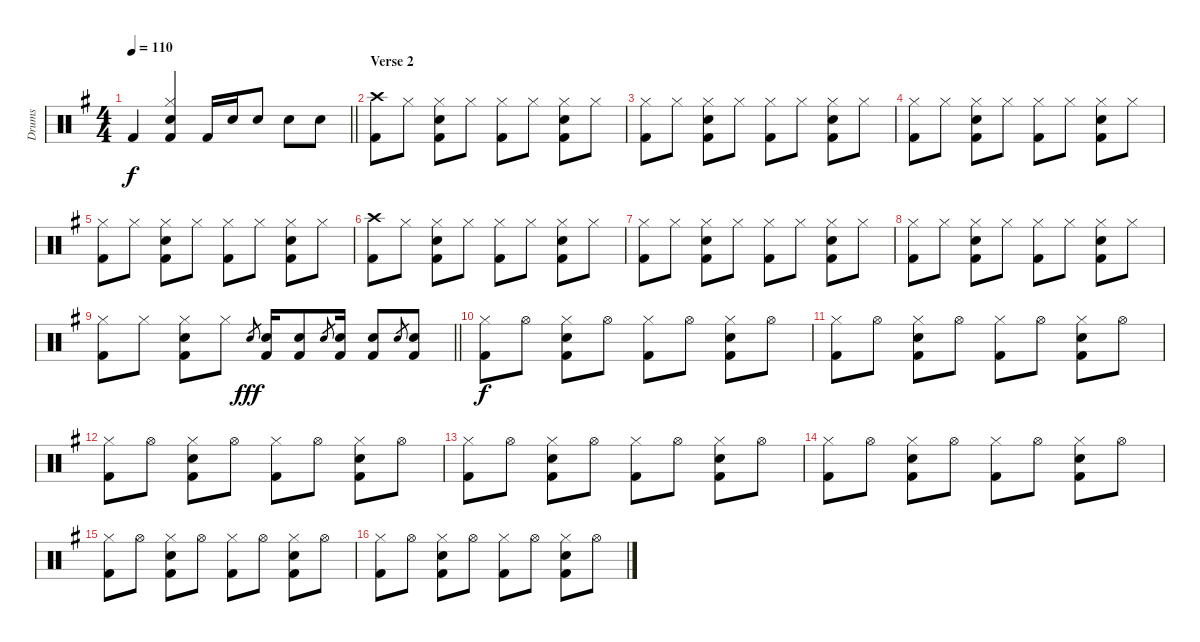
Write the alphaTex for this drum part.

\track ("Drums" "Drums") {instrument percussion}
\staff {score}
\articulation defaults
\ts (4 4)
\tempo 110
\clef neutral
\barLineRight lightlight
\ks g "Kick (hit) 2".4{dy f}
("Hi-Hat (closed)" "Snare (hit) 2" "Kick (hit) 2").4 "Kick (hit) 2".16 "Snare (hit) 2".16 "Snare (hit) 2".8 "Snare (hit) 2".8 "Snare (hit) 2".8 |
\section ("" "Verse 2")
("Crash high (hit)" "Kick (hit) 2").8 "Hi-Hat (closed)".8 ("Hi-Hat (closed)" "Snare (hit) 2" "Kick (hit) 2").8 "Hi-Hat (closed)".8 ("Hi-Hat (closed)" "Kick (hit) 2").8 "Hi-Hat (closed)".8 ("Hi-Hat (closed)" "Snare (hit) 2" "Kick (hit) 2").8 "Hi-Hat (closed)".8 |
("Hi-Hat (closed)" "Kick (hit) 2").8 "Hi-Hat (closed)".8 ("Hi-Hat (closed)" "Snare (hit) 2" "Kick (hit) 2").8 "Hi-Hat (closed)".8 ("Hi-Hat (closed)" "Kick (hit) 2").8 "Hi-Hat (closed)".8 ("Hi-Hat (closed)" "Snare (hit) 2" "Kick (hit) 2").8 "Hi-Hat (closed)".8 |
("Hi-Hat (closed)" "Kick (hit) 2").8 "Hi-Hat (closed)".8 ("Hi-Hat (closed)" "Snare (hit) 2" "Kick (hit) 2").8 "Hi-Hat (closed)".8 ("Hi-Hat (closed)" "Kick (hit) 2").8 "Hi-Hat (closed)".8 ("Hi-Hat (closed)" "Snare (hit) 2" "Kick (hit) 2").8 "Hi-Hat (closed)".8 |
("Hi-Hat (closed)" "Kick (hit) 2").8 "Hi-Hat (closed)".8 ("Hi-Hat (closed)" "Snare (hit) 2" "Kick (hit) 2").8 "Hi-Hat (closed)".8 ("Hi-Hat (closed)" "Kick (hit) 2").8 "Hi-Hat (closed)".8 ("Hi-Hat (closed)" "Snare (hit) 2" "Kick (hit) 2").8 "Hi-Hat (closed)".8 |
("Crash high (hit)" "Kick (hit) 2").8 "Hi-Hat (closed)".8 ("Hi-Hat (closed)" "Snare (hit) 2" "Kick (hit) 2").8 "Hi-Hat (closed)".8 ("Hi-Hat (closed)" "Kick (hit) 2").8 "Hi-Hat (closed)".8 ("Hi-Hat (closed)" "Snare (hit) 2" "Kick (hit) 2").8 "Hi-Hat (closed)".8 |
("Hi-Hat (closed)" "Kick (hit) 2").8 "Hi-Hat (closed)".8 ("Hi-Hat (closed)" "Snare (hit) 2" "Kick (hit) 2").8 "Hi-Hat (closed)".8 ("Hi-Hat (closed)" "Kick (hit) 2").8 "Hi-Hat (closed)".8 ("Hi-Hat (closed)" "Snare (hit) 2" "Kick (hit) 2").8 "Hi-Hat (closed)".8 |
("Hi-Hat (closed)" "Kick (hit) 2").8 "Hi-Hat (closed)".8 ("Hi-Hat (closed)" "Snare (hit) 2" "Kick (hit) 2").8 "Hi-Hat (closed)".8 ("Hi-Hat (closed)" "Kick (hit) 2").8 "Hi-Hat (closed)".8 ("Hi-Hat (closed)" "Snare (hit) 2" "Kick (hit) 2").8 "Hi-Hat (closed)".8 |
\barLineRight lightlight
("Hi-Hat (closed)" "Kick (hit) 2").8 "Hi-Hat (closed)".8 ("Hi-Hat (closed)" "Snare (hit) 2" "Kick (hit) 2").8 "Hi-Hat (closed)".8 "Snare (hit) 2".8{gr dy fff} ("Snare (hit) 2" "Kick (hit) 2").16 ("Snare (hit) 2" "Kick (hit) 2").8 "Snare (hit) 2".8{gr} ("Snare (hit) 2" "Kick (hit) 2").16 ("Snare (hit) 2" "Kick (hit) 2").8 "Snare (hit) 2".8{gr} ("Snare (hit) 2" "Kick (hit) 2").8 |
("Hi-Hat (closed)" "Kick (hit) 2").8{dy f} "Hi-Hat (open)".8 ("Hi-Hat (closed)" "Snare (hit) 2" "Kick (hit) 2").8 "Hi-Hat (open)".8 ("Hi-Hat (closed)" "Kick (hit) 2").8 "Hi-Hat (open)".8 ("Hi-Hat (closed)" "Snare (hit) 2" "Kick (hit) 2").8 "Hi-Hat (open)".8 |
("Hi-Hat (closed)" "Kick (hit) 2").8 "Hi-Hat (open)".8 ("Hi-Hat (closed)" "Snare (hit) 2" "Kick (hit) 2").8 "Hi-Hat (open)".8 ("Hi-Hat (closed)" "Kick (hit) 2").8 "Hi-Hat (open)".8 ("Hi-Hat (closed)" "Snare (hit) 2" "Kick (hit) 2").8 "Hi-Hat (open)".8 |
("Hi-Hat (closed)" "Kick (hit) 2").8 "Hi-Hat (open)".8 ("Hi-Hat (closed)" "Snare (hit) 2" "Kick (hit) 2").8 "Hi-Hat (open)".8 ("Hi-Hat (closed)" "Kick (hit) 2").8 "Hi-Hat (open)".8 ("Hi-Hat (closed)" "Snare (hit) 2" "Kick (hit) 2").8 "Hi-Hat (open)".8 |
("Hi-Hat (closed)" "Kick (hit) 2").8 "Hi-Hat (open)".8 ("Hi-Hat (closed)" "Snare (hit) 2" "Kick (hit) 2").8 "Hi-Hat (open)".8 ("Hi-Hat (closed)" "Kick (hit) 2").8 "Hi-Hat (open)".8 ("Hi-Hat (closed)" "Snare (hit) 2" "Kick (hit) 2").8 "Hi-Hat (open)".8 |
("Hi-Hat (closed)" "Kick (hit) 2").8 "Hi-Hat (open)".8 ("Hi-Hat (closed)" "Snare (hit) 2" "Kick (hit) 2").8 "Hi-Hat (open)".8 ("Hi-Hat (closed)" "Kick (hit) 2").8 "Hi-Hat (open)".8 ("Hi-Hat (closed)" "Snare (hit) 2" "Kick (hit) 2").8 "Hi-Hat (open)".8 |
("Hi-Hat (closed)" "Kick (hit) 2").8 "Hi-Hat (open)".8 ("Hi-Hat (closed)" "Snare (hit) 2" "Kick (hit) 2").8 "Hi-Hat (open)".8 ("Hi-Hat (closed)" "Kick (hit) 2").8 "Hi-Hat (open)".8 ("Hi-Hat (closed)" "Snare (hit) 2" "Kick (hit) 2").8 "Hi-Hat (open)".8 |
("Hi-Hat (closed)" "Kick (hit) 2").8 "Hi-Hat (open)".8 ("Hi-Hat (closed)" "Snare (hit) 2" "Kick (hit) 2").8 "Hi-Hat (open)".8 ("Hi-Hat (closed)" "Kick (hit) 2").8 "Hi-Hat (open)".8 ("Hi-Hat (closed)" "Snare (hit) 2" "Kick (hit) 2").8 "Hi-Hat (open)".8
